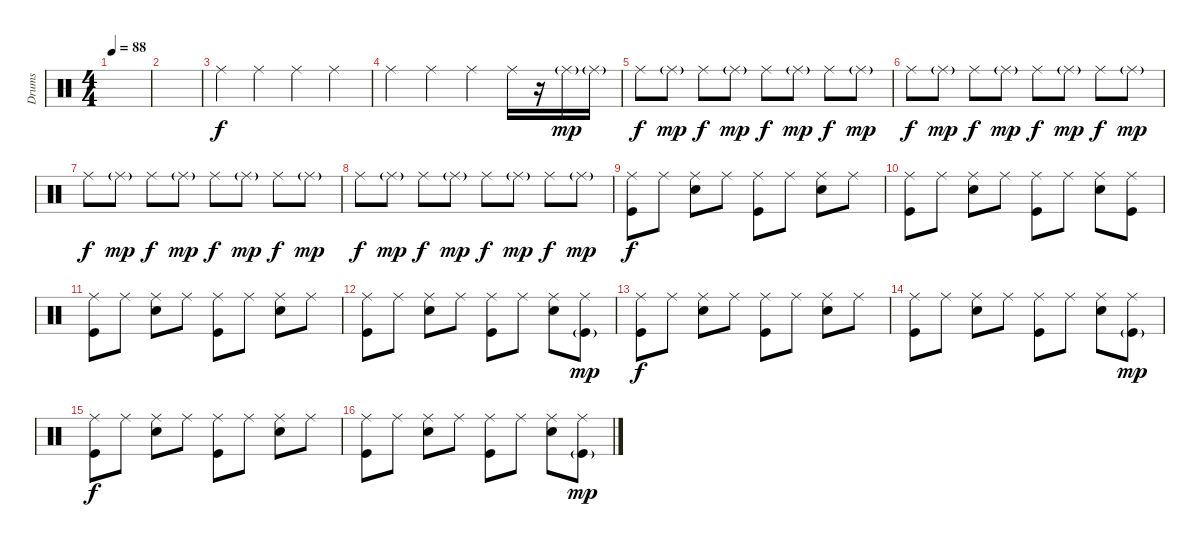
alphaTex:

\track ("Drums" "Drums") {instrument percussion}
\staff {score}
\articulation defaults
\ts (4 4)
\tempo 88
\clef neutral
\ks c
|
|
"Ride (middle)".4 "Ride (middle)".4 "Ride (middle)".4 "Ride (middle)".4 |
"Ride (middle)".4 "Ride (middle)".4 "Ride (middle)".4 "Ride (middle)".16 r.16 "Ride (middle)"{g}.16{dy mp} "Ride (middle)"{g}.16 |
"Ride (middle)".8{dy f} "Ride (middle)"{g}.8{dy mp} "Ride (middle)".8{dy f} "Ride (middle)"{g}.8{dy mp} "Ride (middle)".8{dy f} "Ride (middle)"{g}.8{dy mp} "Ride (middle)".8{dy f} "Ride (middle)"{g}.8{dy mp} |
"Ride (middle)".8{dy f} "Ride (middle)"{g}.8{dy mp} "Ride (middle)".8{dy f} "Ride (middle)"{g}.8{dy mp} "Ride (middle)".8{dy f} "Ride (middle)"{g}.8{dy mp} "Ride (middle)".8{dy f} "Ride (middle)"{g}.8{dy mp} |
"Ride (middle)".8{dy f} "Ride (middle)"{g}.8{dy mp} "Ride (middle)".8{dy f} "Ride (middle)"{g}.8{dy mp} "Ride (middle)".8{dy f} "Ride (middle)"{g}.8{dy mp} "Ride (middle)".8{dy f} "Ride (middle)"{g}.8{dy mp} |
"Ride (middle)".8{dy f} "Ride (middle)"{g}.8{dy mp} "Ride (middle)".8{dy f} "Ride (middle)"{g}.8{dy mp} "Ride (middle)".8{dy f} "Ride (middle)"{g}.8{dy mp} "Ride (middle)".8{dy f} "Ride (middle)"{g}.8{dy mp} |
("Ride (middle)" "Kick (hit)").8{dy f} "Ride (middle)".8 ("Ride (middle)" "Snare (hit) 2").8 "Ride (middle)".8 ("Ride (middle)" "Kick (hit)").8 "Ride (middle)".8 ("Ride (middle)" "Snare (hit) 2").8 "Ride (middle)".8 |
("Ride (middle)" "Kick (hit)").8 "Ride (middle)".8 ("Ride (middle)" "Snare (hit) 2").8 "Ride (middle)".8 ("Ride (middle)" "Kick (hit)").8 "Ride (middle)".8 ("Ride (middle)" "Snare (hit) 2").8 ("Ride (middle)" "Kick (hit)").8 |
("Ride (middle)" "Kick (hit)").8 "Ride (middle)".8 ("Ride (middle)" "Snare (hit) 2").8 "Ride (middle)".8 ("Ride (middle)" "Kick (hit)").8 "Ride (middle)".8 ("Ride (middle)" "Snare (hit) 2").8 "Ride (middle)".8 |
("Ride (middle)" "Kick (hit)").8 "Ride (middle)".8 ("Ride (middle)" "Snare (hit) 2").8 "Ride (middle)".8 ("Ride (middle)" "Kick (hit)").8 "Ride (middle)".8 ("Ride (middle)" "Snare (hit) 2").8 ("Ride (middle)" "Kick (hit)"{g}).8{dy mp} |
("Ride (middle)" "Kick (hit)").8{dy f} "Ride (middle)".8 ("Ride (middle)" "Snare (hit) 2").8 "Ride (middle)".8 ("Ride (middle)" "Kick (hit)").8 "Ride (middle)".8 ("Ride (middle)" "Snare (hit) 2").8 "Ride (middle)".8 |
("Ride (middle)" "Kick (hit)").8 "Ride (middle)".8 ("Ride (middle)" "Snare (hit) 2").8 "Ride (middle)".8 ("Ride (middle)" "Kick (hit)").8 "Ride (middle)".8 ("Ride (middle)" "Snare (hit) 2").8 ("Ride (middle)" "Kick (hit)"{g}).8{dy mp} |
("Ride (middle)" "Kick (hit)").8{dy f} "Ride (middle)".8 ("Ride (middle)" "Snare (hit) 2").8 "Ride (middle)".8 ("Ride (middle)" "Kick (hit)").8 "Ride (middle)".8 ("Ride (middle)" "Snare (hit) 2").8 "Ride (middle)".8 |
("Ride (middle)" "Kick (hit)").8 "Ride (middle)".8 ("Ride (middle)" "Snare (hit) 2").8 "Ride (middle)".8 ("Ride (middle)" "Kick (hit)").8 "Ride (middle)".8 ("Ride (middle)" "Snare (hit) 2").8 ("Ride (middle)" "Kick (hit)"{g}).8{dy mp}
